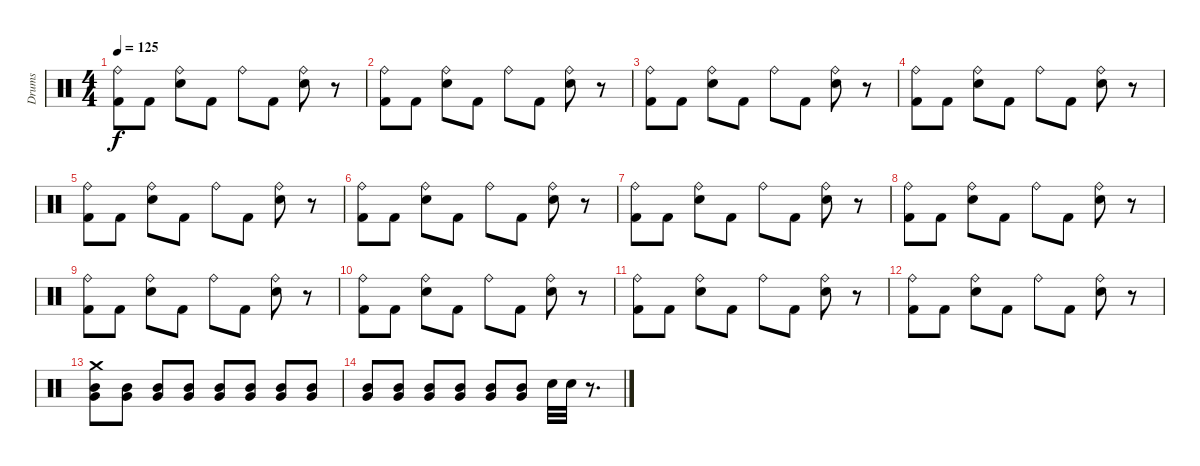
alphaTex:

\track ("Drums" "Drums") {instrument percussion}
\staff {score}
\articulation defaults
\ts (4 4)
\tempo 125
\clef neutral
\ks c
("Kick (hit) 2" "Ride (bell)").8{dy f} "Kick (hit) 2".8 ("Electric Snare (hit)" "Ride (bell)").8 "Kick (hit) 2".8 "Ride (bell)".8 "Kick (hit) 2".8 ("Electric Snare (hit)" "Ride (bell)").8 r.8 |
("Kick (hit) 2" "Ride (bell)").8 "Kick (hit) 2".8 ("Electric Snare (hit)" "Ride (bell)").8 "Kick (hit) 2".8 "Ride (bell)".8 "Kick (hit) 2".8 ("Electric Snare (hit)" "Ride (bell)").8 r.8 |
("Kick (hit) 2" "Ride (bell)").8 "Kick (hit) 2".8 ("Electric Snare (hit)" "Ride (bell)").8 "Kick (hit) 2".8 "Ride (bell)".8 "Kick (hit) 2".8 ("Electric Snare (hit)" "Ride (bell)").8 r.8 |
("Kick (hit) 2" "Ride (bell)").8 "Kick (hit) 2".8 ("Electric Snare (hit)" "Ride (bell)").8 "Kick (hit) 2".8 "Ride (bell)".8 "Kick (hit) 2".8 ("Electric Snare (hit)" "Ride (bell)").8 r.8 |
("Kick (hit) 2" "Ride (bell)").8 "Kick (hit) 2".8 ("Electric Snare (hit)" "Ride (bell)").8 "Kick (hit) 2".8 "Ride (bell)".8 "Kick (hit) 2".8 ("Electric Snare (hit)" "Ride (bell)").8 r.8 |
("Kick (hit) 2" "Ride (bell)").8 "Kick (hit) 2".8 ("Electric Snare (hit)" "Ride (bell)").8 "Kick (hit) 2".8 "Ride (bell)".8 "Kick (hit) 2".8 ("Electric Snare (hit)" "Ride (bell)").8 r.8 |
("Kick (hit) 2" "Ride (bell)").8 "Kick (hit) 2".8 ("Electric Snare (hit)" "Ride (bell)").8 "Kick (hit) 2".8 "Ride (bell)".8 "Kick (hit) 2".8 ("Electric Snare (hit)" "Ride (bell)").8 r.8 |
("Kick (hit) 2" "Ride (bell)").8 "Kick (hit) 2".8 ("Electric Snare (hit)" "Ride (bell)").8 "Kick (hit) 2".8 "Ride (bell)".8 "Kick (hit) 2".8 ("Electric Snare (hit)" "Ride (bell)").8 r.8 |
("Kick (hit) 2" "Ride (bell)").8 "Kick (hit) 2".8 ("Electric Snare (hit)" "Ride (bell)").8 "Kick (hit) 2".8 "Ride (bell)".8 "Kick (hit) 2".8 ("Electric Snare (hit)" "Ride (bell)").8 r.8 |
("Kick (hit) 2" "Ride (bell)").8 "Kick (hit) 2".8 ("Electric Snare (hit)" "Ride (bell)").8 "Kick (hit) 2".8 "Ride (bell)".8 "Kick (hit) 2".8 ("Electric Snare (hit)" "Ride (bell)").8 r.8 |
("Kick (hit) 2" "Ride (bell)").8 "Kick (hit) 2".8 ("Electric Snare (hit)" "Ride (bell)").8 "Kick (hit) 2".8 "Ride (bell)".8 "Kick (hit) 2".8 ("Electric Snare (hit)" "Ride (bell)").8 r.8 |
("Kick (hit) 2" "Ride (bell)").8 "Kick (hit) 2".8 ("Electric Snare (hit)" "Ride (bell)").8 "Kick (hit) 2".8 "Ride (bell)".8 "Kick (hit) 2".8 ("Electric Snare (hit)" "Ride (bell)").8 r.8 |
("Crash medium (hit)" "Very Low Tom (hit)" "Mid Tom (hit)").8 ("Very Low Tom (hit)" "Mid Tom (hit)").8 ("Very Low Tom (hit)" "Mid Tom (hit)").8 ("Very Low Tom (hit)" "Mid Tom (hit)").8 ("Very Low Tom (hit)" "Mid Tom (hit)").8 ("Very Low Tom (hit)" "Mid Tom (hit)").8 ("Very Low Tom (hit)" "Mid Tom (hit)").8 ("Very Low Tom (hit)" "Mid Tom (hit)").8 |
("Very Low Tom (hit)" "Mid Tom (hit)").8 ("Very Low Tom (hit)" "Mid Tom (hit)").8 ("Very Low Tom (hit)" "Mid Tom (hit)").8 ("Very Low Tom (hit)" "Mid Tom (hit)").8 ("Very Low Tom (hit)" "Mid Tom (hit)").8 ("Very Low Tom (hit)" "Mid Tom (hit)").8 "Electric Snare (hit)".32 "Electric Snare (hit)".32 r.8{d}
